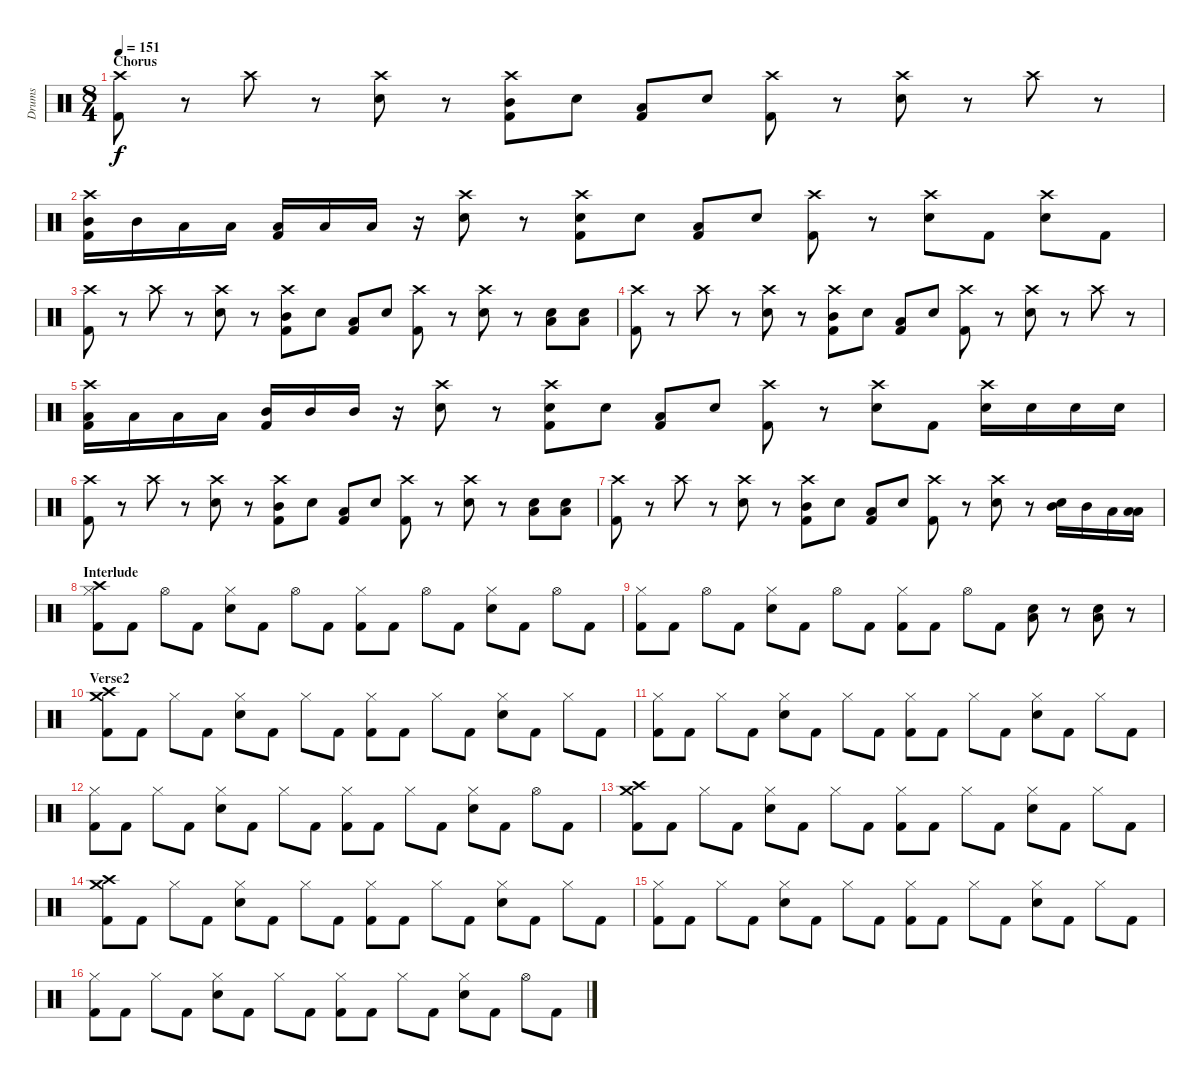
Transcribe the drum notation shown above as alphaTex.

\track ("Drums" "Drums") {instrument percussion}
\staff {score}
\articulation defaults
\ts (8 4)
\section ("" "Chorus")
\tempo 151
\clef neutral
\ks c
("Crash high (hit)" "Kick (hit) 2").8{dy f} r.8 "Crash high (hit)".8 r.8 ("Crash high (hit)" "Electric Snare (hit)").8 r.8 ("Crash high (hit)" "Mid Tom (hit)" "Kick (hit) 2").8 "Electric Snare (hit)".8 ("Low Tom (hit)" "Kick (hit) 2").8 "Electric Snare (hit)".8 ("Crash high (hit)" "Kick (hit) 2").8 r.8 ("Crash high (hit)" "Electric Snare (hit)").8 r.8 "Crash high (hit)".8 r.8 |
("Crash high (hit)" "Mid Tom (hit)" "Kick (hit) 2").16 "Mid Tom (hit)".16 "Low Tom (hit)".16 "Low Tom (hit)".16 ("Low Floor Tom (hit)" "Kick (hit) 2").16 "Low Floor Tom (hit)".16 "Low Floor Tom (hit)".16 r.16 ("Crash high (hit)" "Electric Snare (hit)").8 r.8 ("Crash high (hit)" "Electric Snare (hit)" "Kick (hit) 2").8 "Electric Snare (hit)".8 ("Low Tom (hit)" "Kick (hit) 2").8 "Electric Snare (hit)".8 ("Crash high (hit)" "Kick (hit) 2").8 r.8 ("Crash high (hit)" "Electric Snare (hit)").8 "Kick (hit) 2".8 ("Crash high (hit)" "Electric Snare (hit)").8 "Kick (hit) 2".8 |
("Crash high (hit)" "Kick (hit) 2").8 r.8 "Crash high (hit)".8 r.8 ("Crash high (hit)" "Electric Snare (hit)").8 r.8 ("Crash high (hit)" "Mid Tom (hit)" "Kick (hit) 2").8 "Electric Snare (hit)".8 ("Low Tom (hit)" "Kick (hit) 2").8 "Electric Snare (hit)".8 ("Crash high (hit)" "Kick (hit) 2").8 r.8 ("Crash high (hit)" "Electric Snare (hit)").8 r.8 ("Electric Snare (hit)" "Low Floor Tom (hit)").8 ("Electric Snare (hit)" "Low Floor Tom (hit)").8 |
("Crash high (hit)" "Kick (hit) 2").8 r.8 "Crash high (hit)".8 r.8 ("Crash high (hit)" "Electric Snare (hit)").8 r.8 ("Crash high (hit)" "Mid Tom (hit)" "Kick (hit) 2").8 "Electric Snare (hit)".8 ("Low Tom (hit)" "Kick (hit) 2").8 "Electric Snare (hit)".8 ("Crash high (hit)" "Kick (hit) 2").8 r.8 ("Crash high (hit)" "Electric Snare (hit)").8 r.8 "Crash high (hit)".8 r.8 |
("Crash high (hit)" "Low Floor Tom (hit)" "Kick (hit) 2").16 "Low Floor Tom (hit)".16 "Low Tom (hit)".16 "Low Tom (hit)".16 ("Mid Tom (hit)" "Kick (hit) 2").16 "Mid Tom (hit)".16 "Mid Tom (hit)".16 r.16 ("Crash high (hit)" "Electric Snare (hit)").8 r.8 ("Crash high (hit)" "Electric Snare (hit)" "Kick (hit) 2").8 "Electric Snare (hit)".8 ("Low Tom (hit)" "Kick (hit) 2").8 "Electric Snare (hit)".8 ("Crash high (hit)" "Kick (hit) 2").8 r.8 ("Crash high (hit)" "Electric Snare (hit)").8 "Kick (hit) 2".8 ("Crash high (hit)" "Electric Snare (hit)").16 "Electric Snare (hit)".16 "Electric Snare (hit)".16 "Electric Snare (hit)".16 |
("Crash high (hit)" "Kick (hit) 2").8 r.8 "Crash high (hit)".8 r.8 ("Crash high (hit)" "Electric Snare (hit)").8 r.8 ("Crash high (hit)" "Mid Tom (hit)" "Kick (hit) 2").8 "Electric Snare (hit)".8 ("Low Tom (hit)" "Kick (hit) 2").8 "Electric Snare (hit)".8 ("Crash high (hit)" "Kick (hit) 2").8 r.8 ("Crash high (hit)" "Electric Snare (hit)").8 r.8 ("Electric Snare (hit)" "Low Floor Tom (hit)").8 ("Electric Snare (hit)" "Low Floor Tom (hit)").8 |
("Crash high (hit)" "Kick (hit) 2").8 r.8 "Crash high (hit)".8 r.8 ("Crash high (hit)" "Electric Snare (hit)").8 r.8 ("Crash high (hit)" "Mid Tom (hit)" "Kick (hit) 2").8 "Electric Snare (hit)".8 ("Low Tom (hit)" "Kick (hit) 2").8 "Electric Snare (hit)".8 ("Crash high (hit)" "Kick (hit) 2").8 r.8 ("Crash high (hit)" "Electric Snare (hit)").8 r.8 ("Mid Tom (hit)" "Electric Snare (hit)").16 "Mid Tom (hit)".16 "Low Tom (hit)".16 ("Low Tom (hit)" "Low Floor Tom (hit)").16 |
\section ("" "Interlude")
("Crash high (hit)" "Hi-Hat (closed)" "Kick (hit) 2").8 "Kick (hit) 2".8 "Hi-Hat (open)".8 "Kick (hit) 2".8 ("Hi-Hat (closed)" "Electric Snare (hit)").8 "Kick (hit) 2".8 "Hi-Hat (open)".8 "Kick (hit) 2".8 ("Hi-Hat (closed)" "Kick (hit) 2").8 "Kick (hit) 2".8 "Hi-Hat (open)".8 "Kick (hit) 2".8 ("Hi-Hat (closed)" "Electric Snare (hit)").8 "Kick (hit) 2".8 "Hi-Hat (open)".8 "Kick (hit) 2".8 |
("Hi-Hat (closed)" "Kick (hit) 2").8 "Kick (hit) 2".8 "Hi-Hat (open)".8 "Kick (hit) 2".8 ("Hi-Hat (closed)" "Electric Snare (hit)").8 "Kick (hit) 2".8 "Hi-Hat (open)".8 "Kick (hit) 2".8 ("Hi-Hat (closed)" "Kick (hit) 2").8 "Kick (hit) 2".8 "Hi-Hat (open)".8 "Kick (hit) 2".8 ("Electric Snare (hit)" "Low Floor Tom (hit)").8 r.8 ("Electric Snare (hit)" "Low Floor Tom (hit)").8 r.8 |
\section ("" "Verse2")
("Crash high (hit)" "Crash medium (hit)" "Kick (hit) 2").8 "Kick (hit) 2".8 "Hi-Hat (closed)".8 "Kick (hit) 2".8 ("Hi-Hat (closed)" "Electric Snare (hit)").8 "Kick (hit) 2".8 "Hi-Hat (closed)".8 "Kick (hit) 2".8 ("Hi-Hat (closed)" "Kick (hit) 2").8 "Kick (hit) 2".8 "Hi-Hat (closed)".8 "Kick (hit) 2".8 ("Hi-Hat (closed)" "Electric Snare (hit)").8 "Kick (hit) 2".8 "Hi-Hat (closed)".8 "Kick (hit) 2".8 |
("Hi-Hat (closed)" "Kick (hit) 2").8 "Kick (hit) 2".8 "Hi-Hat (closed)".8 "Kick (hit) 2".8 ("Hi-Hat (closed)" "Electric Snare (hit)").8 "Kick (hit) 2".8 "Hi-Hat (closed)".8 "Kick (hit) 2".8 ("Hi-Hat (closed)" "Kick (hit) 2").8 "Kick (hit) 2".8 "Hi-Hat (closed)".8 "Kick (hit) 2".8 ("Hi-Hat (closed)" "Electric Snare (hit)").8 "Kick (hit) 2".8 "Hi-Hat (closed)".8 "Kick (hit) 2".8 |
("Hi-Hat (closed)" "Kick (hit) 2").8 "Kick (hit) 2".8 "Hi-Hat (closed)".8 "Kick (hit) 2".8 ("Hi-Hat (closed)" "Electric Snare (hit)").8 "Kick (hit) 2".8 "Hi-Hat (closed)".8 "Kick (hit) 2".8 ("Hi-Hat (closed)" "Kick (hit) 2").8 "Kick (hit) 2".8 "Hi-Hat (closed)".8 "Kick (hit) 2".8 ("Hi-Hat (closed)" "Electric Snare (hit)").8 "Kick (hit) 2".8 "Hi-Hat (open)".8 "Kick (hit) 2".8 |
("Crash high (hit)" "Crash medium (hit)" "Kick (hit) 2").8 "Kick (hit) 2".8 "Hi-Hat (closed)".8 "Kick (hit) 2".8 ("Hi-Hat (closed)" "Electric Snare (hit)").8 "Kick (hit) 2".8 "Hi-Hat (closed)".8 "Kick (hit) 2".8 ("Hi-Hat (closed)" "Kick (hit) 2").8 "Kick (hit) 2".8 "Hi-Hat (closed)".8 "Kick (hit) 2".8 ("Hi-Hat (closed)" "Electric Snare (hit)").8 "Kick (hit) 2".8 "Hi-Hat (closed)".8 "Kick (hit) 2".8 |
("Crash high (hit)" "Crash medium (hit)" "Kick (hit) 2").8 "Kick (hit) 2".8 "Hi-Hat (closed)".8 "Kick (hit) 2".8 ("Hi-Hat (closed)" "Electric Snare (hit)").8 "Kick (hit) 2".8 "Hi-Hat (closed)".8 "Kick (hit) 2".8 ("Hi-Hat (closed)" "Kick (hit) 2").8 "Kick (hit) 2".8 "Hi-Hat (closed)".8 "Kick (hit) 2".8 ("Hi-Hat (closed)" "Electric Snare (hit)").8 "Kick (hit) 2".8 "Hi-Hat (closed)".8 "Kick (hit) 2".8 |
("Hi-Hat (closed)" "Kick (hit) 2").8 "Kick (hit) 2".8 "Hi-Hat (closed)".8 "Kick (hit) 2".8 ("Hi-Hat (closed)" "Electric Snare (hit)").8 "Kick (hit) 2".8 "Hi-Hat (closed)".8 "Kick (hit) 2".8 ("Hi-Hat (closed)" "Kick (hit) 2").8 "Kick (hit) 2".8 "Hi-Hat (closed)".8 "Kick (hit) 2".8 ("Hi-Hat (closed)" "Electric Snare (hit)").8 "Kick (hit) 2".8 "Hi-Hat (closed)".8 "Kick (hit) 2".8 |
("Hi-Hat (closed)" "Kick (hit) 2").8 "Kick (hit) 2".8 "Hi-Hat (closed)".8 "Kick (hit) 2".8 ("Hi-Hat (closed)" "Electric Snare (hit)").8 "Kick (hit) 2".8 "Hi-Hat (closed)".8 "Kick (hit) 2".8 ("Hi-Hat (closed)" "Kick (hit) 2").8 "Kick (hit) 2".8 "Hi-Hat (closed)".8 "Kick (hit) 2".8 ("Hi-Hat (closed)" "Electric Snare (hit)").8 "Kick (hit) 2".8 "Hi-Hat (open)".8 "Kick (hit) 2".8
